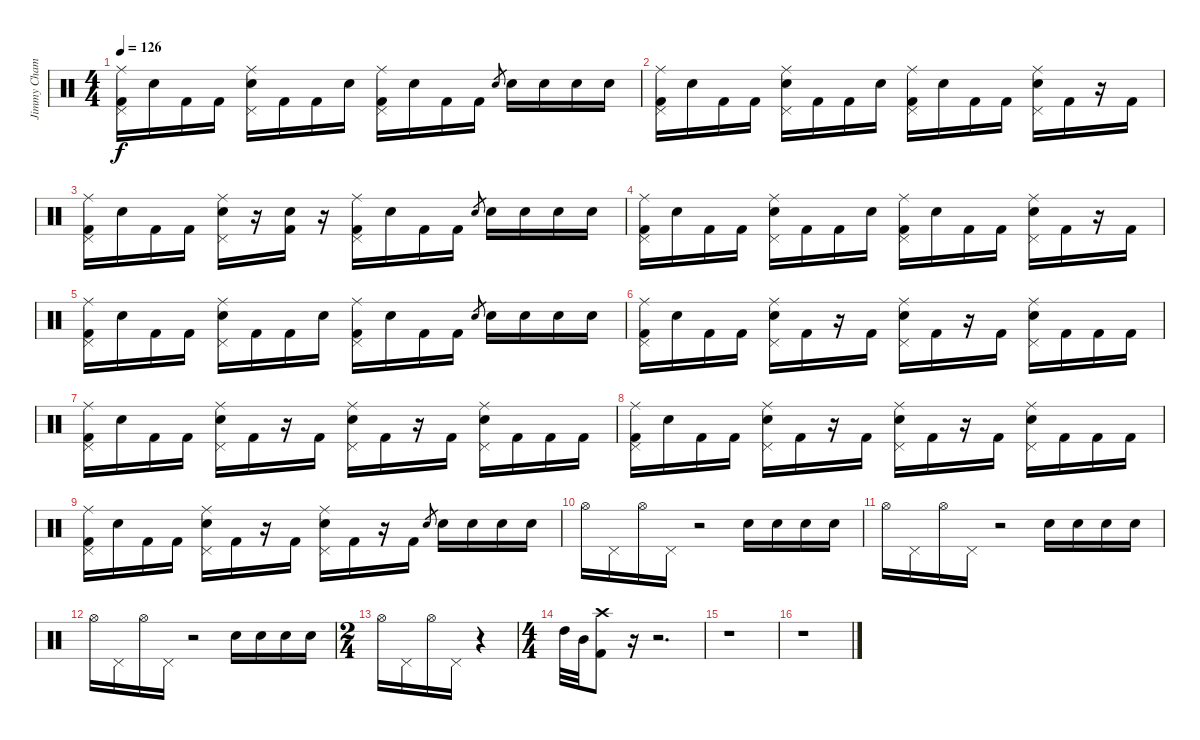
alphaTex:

\track ("Jimmy Chamberlain" "Jimmy Cham") {instrument percussion}
\staff {score}
\articulation defaults
\ts (4 4)
\tempo 126
\clef neutral
\ks c
("Ride (middle)" "Pedal Hi-Hat (hit)" "Kick (hit) 2").16{dy f} "Snare (hit) 2".16 "Kick (hit) 2".16 "Kick (hit) 2".16 ("Ride (middle)" "Pedal Hi-Hat (hit)" "Snare (hit) 2").16 "Kick (hit) 2".16 "Kick (hit) 2".16 "Snare (hit) 2".16 ("Ride (middle)" "Pedal Hi-Hat (hit)" "Kick (hit) 2").16 "Snare (hit) 2".16 "Kick (hit) 2".16 "Kick (hit) 2".16 "Snare (hit) 2".8{gr} "Snare (hit) 2".16 "Snare (hit) 2".16 "Snare (hit) 2".16 "Snare (hit) 2".16 |
("Ride (middle)" "Pedal Hi-Hat (hit)" "Kick (hit) 2").16 "Snare (hit) 2".16 "Kick (hit) 2".16 "Kick (hit) 2".16 ("Ride (middle)" "Pedal Hi-Hat (hit)" "Snare (hit) 2").16 "Kick (hit) 2".16 "Kick (hit) 2".16 "Snare (hit) 2".16 ("Ride (middle)" "Pedal Hi-Hat (hit)" "Kick (hit) 2").16 "Snare (hit) 2".16 "Kick (hit) 2".16 "Kick (hit) 2".16 ("Ride (middle)" "Pedal Hi-Hat (hit)" "Snare (hit) 2").16 "Kick (hit) 2".16 r.16 "Kick (hit) 2".16 |
("Ride (middle)" "Pedal Hi-Hat (hit)" "Kick (hit) 2").16 "Snare (hit) 2".16 "Kick (hit) 2".16 "Kick (hit) 2".16 ("Ride (middle)" "Pedal Hi-Hat (hit)" "Snare (hit) 2").16 r.16 ("Snare (hit) 2" "Kick (hit) 2").16 r.16 ("Ride (middle)" "Pedal Hi-Hat (hit)" "Kick (hit) 2").16 "Snare (hit) 2".16 "Kick (hit) 2".16 "Kick (hit) 2".16 "Snare (hit) 2".8{gr} "Snare (hit) 2".16 "Snare (hit) 2".16 "Snare (hit) 2".16 "Snare (hit) 2".16 |
("Ride (middle)" "Pedal Hi-Hat (hit)" "Kick (hit) 2").16 "Snare (hit) 2".16 "Kick (hit) 2".16 "Kick (hit) 2".16 ("Ride (middle)" "Pedal Hi-Hat (hit)" "Snare (hit) 2").16 "Kick (hit) 2".16 "Kick (hit) 2".16 "Snare (hit) 2".16 ("Ride (middle)" "Pedal Hi-Hat (hit)" "Kick (hit) 2").16 "Snare (hit) 2".16 "Kick (hit) 2".16 "Kick (hit) 2".16 ("Ride (middle)" "Pedal Hi-Hat (hit)" "Snare (hit) 2").16 "Kick (hit) 2".16 r.16 "Kick (hit) 2".16 |
("Ride (middle)" "Pedal Hi-Hat (hit)" "Kick (hit) 2").16 "Snare (hit) 2".16 "Kick (hit) 2".16 "Kick (hit) 2".16 ("Ride (middle)" "Pedal Hi-Hat (hit)" "Snare (hit) 2").16 "Kick (hit) 2".16 "Kick (hit) 2".16 "Snare (hit) 2".16 ("Ride (middle)" "Pedal Hi-Hat (hit)" "Kick (hit) 2").16 "Snare (hit) 2".16 "Kick (hit) 2".16 "Kick (hit) 2".16 "Snare (hit) 2".8{gr} "Snare (hit) 2".16 "Snare (hit) 2".16 "Snare (hit) 2".16 "Snare (hit) 2".16 |
("Ride (middle)" "Pedal Hi-Hat (hit)" "Kick (hit) 2").16 "Snare (hit) 2".16 "Kick (hit) 2".16 "Kick (hit) 2".16 ("Ride (middle)" "Pedal Hi-Hat (hit)" "Snare (hit) 2").16 "Kick (hit) 2".16 r.16 "Kick (hit) 2".16 ("Ride (middle)" "Pedal Hi-Hat (hit)" "Snare (hit) 2").16 "Kick (hit) 2".16 r.16 "Kick (hit) 2".16 ("Ride (middle)" "Pedal Hi-Hat (hit)" "Snare (hit) 2").16 "Kick (hit) 2".16 "Kick (hit) 2".16 "Kick (hit) 2".16 |
("Ride (middle)" "Pedal Hi-Hat (hit)" "Kick (hit) 2").16 "Snare (hit) 2".16 "Kick (hit) 2".16 "Kick (hit) 2".16 ("Ride (middle)" "Pedal Hi-Hat (hit)" "Snare (hit) 2").16 "Kick (hit) 2".16 r.16 "Kick (hit) 2".16 ("Ride (middle)" "Pedal Hi-Hat (hit)" "Snare (hit) 2").16 "Kick (hit) 2".16 r.16 "Kick (hit) 2".16 ("Ride (middle)" "Pedal Hi-Hat (hit)" "Snare (hit) 2").16 "Kick (hit) 2".16 "Kick (hit) 2".16 "Kick (hit) 2".16 |
("Ride (middle)" "Pedal Hi-Hat (hit)" "Kick (hit) 2").16 "Snare (hit) 2".16 "Kick (hit) 2".16 "Kick (hit) 2".16 ("Ride (middle)" "Pedal Hi-Hat (hit)" "Snare (hit) 2").16 "Kick (hit) 2".16 r.16 "Kick (hit) 2".16 ("Ride (middle)" "Pedal Hi-Hat (hit)" "Snare (hit) 2").16 "Kick (hit) 2".16 r.16 "Kick (hit) 2".16 ("Ride (middle)" "Pedal Hi-Hat (hit)" "Snare (hit) 2").16 "Kick (hit) 2".16 "Kick (hit) 2".16 "Kick (hit) 2".16 |
("Ride (middle)" "Pedal Hi-Hat (hit)" "Kick (hit) 2").16 "Snare (hit) 2".16 "Kick (hit) 2".16 "Kick (hit) 2".16 ("Ride (middle)" "Pedal Hi-Hat (hit)" "Snare (hit) 2").16 "Kick (hit) 2".16 r.16 "Kick (hit) 2".16 ("Ride (middle)" "Pedal Hi-Hat (hit)" "Snare (hit) 2").16 "Kick (hit) 2".16 r.16 "Kick (hit) 2".16 "Snare (hit) 2".8{gr} "Snare (hit) 2".16 "Snare (hit) 2".16 "Snare (hit) 2".16 "Snare (hit) 2".16 |
"Hi-Hat (open)".16 "Pedal Hi-Hat (hit)".16 "Hi-Hat (open)".16 "Pedal Hi-Hat (hit)".16 r.2 "Snare (hit) 2".16 "Snare (hit) 2".16 "Snare (hit) 2".16 "Snare (hit) 2".16 |
"Hi-Hat (open)".16 "Pedal Hi-Hat (hit)".16 "Hi-Hat (open)".16 "Pedal Hi-Hat (hit)".16 r.2 "Snare (hit) 2".16 "Snare (hit) 2".16 "Snare (hit) 2".16 "Snare (hit) 2".16 |
"Hi-Hat (open)".16 "Pedal Hi-Hat (hit)".16 "Hi-Hat (open)".16 "Pedal Hi-Hat (hit)".16 r.2 "Snare (hit) 2".16 "Snare (hit) 2".16 "Snare (hit) 2".16 "Snare (hit) 2".16 |
\ts (2 4)
"Hi-Hat (open)".16 "Pedal Hi-Hat (hit)".16 "Hi-Hat (open)".16 "Pedal Hi-Hat (hit)".16 r.4 |
\ts (4 4)
"High Tom (hit)".32 "Mid Tom (hit)".32 ("Crash high (hit)" "Kick (hit) 2").8 r.16 r.2{d} |
r.1 |
r.1
